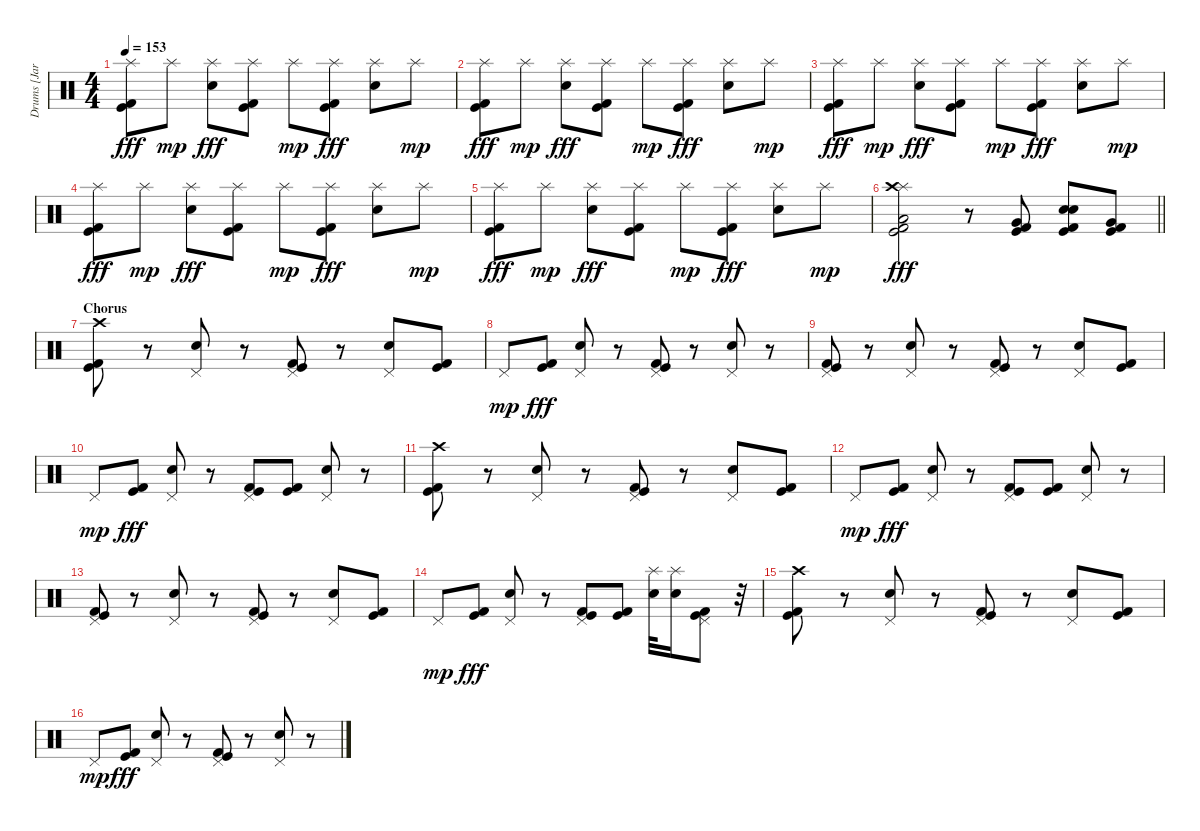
\track ("Drums [Jari]" "Drums [Jar") {instrument percussion}
\staff {score}
\articulation defaults
\ts (4 4)
\tempo 153
\clef neutral
\ks c
("Kick (hit) 2" "Splash (hit)" "Kick (hit)").8{dy fff} "Splash (hit)".8{dy mp} ("Splash (hit)" "Electric Snare (hit)").8{dy fff} ("Kick (hit) 2" "Splash (hit)" "Kick (hit)").8 "Splash (hit)".8{dy mp} ("Kick (hit) 2" "Splash (hit)" "Kick (hit)").8{dy fff} ("Splash (hit)" "Electric Snare (hit)").8 "Splash (hit)".8{dy mp} |
("Kick (hit) 2" "Splash (hit)" "Kick (hit)").8{dy fff} "Splash (hit)".8{dy mp} ("Splash (hit)" "Electric Snare (hit)").8{dy fff} ("Kick (hit) 2" "Splash (hit)" "Kick (hit)").8 "Splash (hit)".8{dy mp} ("Kick (hit) 2" "Splash (hit)" "Kick (hit)").8{dy fff} ("Splash (hit)" "Electric Snare (hit)").8 "Splash (hit)".8{dy mp} |
("Kick (hit) 2" "Splash (hit)" "Kick (hit)").8{dy fff} "Splash (hit)".8{dy mp} ("Splash (hit)" "Electric Snare (hit)").8{dy fff} ("Kick (hit) 2" "Splash (hit)" "Kick (hit)").8 "Splash (hit)".8{dy mp} ("Kick (hit) 2" "Splash (hit)" "Kick (hit)").8{dy fff} ("Splash (hit)" "Electric Snare (hit)").8 "Splash (hit)".8{dy mp} |
("Kick (hit) 2" "Splash (hit)" "Kick (hit)").8{dy fff} "Splash (hit)".8{dy mp} ("Splash (hit)" "Electric Snare (hit)").8{dy fff} ("Kick (hit) 2" "Splash (hit)" "Kick (hit)").8 "Splash (hit)".8{dy mp} ("Kick (hit) 2" "Splash (hit)" "Kick (hit)").8{dy fff} ("Splash (hit)" "Electric Snare (hit)").8 "Splash (hit)".8{dy mp} |
("Kick (hit) 2" "Splash (hit)" "Kick (hit)").8{dy fff} "Splash (hit)".8{dy mp} ("Splash (hit)" "Electric Snare (hit)").8{dy fff} ("Kick (hit) 2" "Splash (hit)" "Kick (hit)").8 "Splash (hit)".8{dy mp} ("Kick (hit) 2" "Splash (hit)" "Kick (hit)").8{dy fff} ("Splash (hit)" "Electric Snare (hit)").8 "Splash (hit)".8{dy mp} |
\barLineRight lightlight
("Kick (hit) 2" "Low Floor Tom (hit)" "Splash (hit)" "Crash high (hit)" "Kick (hit)").2{dy fff} r.8 ("Kick (hit) 2" "Very Low Tom (hit)" "Kick (hit)").8 ("Kick (hit) 2" "Snare (hit) 2" "Electric Snare (hit)" "Kick (hit)").8 ("Kick (hit) 2" "Very Low Tom (hit)" "Kick (hit)").8 |
\section ("" "Chorus")
("Kick (hit) 2" "Crash high (hit)" "Kick (hit)").8 r.8 ("Pedal Hi-Hat (hit)" "Electric Snare (hit)").8 r.8 ("Kick (hit) 2" "Pedal Hi-Hat (hit)" "Kick (hit)").8 r.8 ("Pedal Hi-Hat (hit)" "Electric Snare (hit)").8 ("Kick (hit) 2" "Kick (hit)").8 |
"Pedal Hi-Hat (hit)".8{dy mp} ("Kick (hit) 2" "Kick (hit)").8{dy fff} ("Pedal Hi-Hat (hit)" "Electric Snare (hit)").8 r.8 ("Kick (hit) 2" "Pedal Hi-Hat (hit)" "Kick (hit)").8 r.8 ("Pedal Hi-Hat (hit)" "Electric Snare (hit)").8 r.8 |
("Kick (hit) 2" "Pedal Hi-Hat (hit)" "Kick (hit)").8 r.8 ("Pedal Hi-Hat (hit)" "Electric Snare (hit)").8 r.8 ("Kick (hit) 2" "Pedal Hi-Hat (hit)" "Kick (hit)").8 r.8 ("Pedal Hi-Hat (hit)" "Electric Snare (hit)").8 ("Kick (hit) 2" "Kick (hit)").8 |
"Pedal Hi-Hat (hit)".8{dy mp} ("Kick (hit) 2" "Kick (hit)").8{dy fff} ("Pedal Hi-Hat (hit)" "Electric Snare (hit)").8 r.8 ("Kick (hit) 2" "Pedal Hi-Hat (hit)" "Kick (hit)").8 ("Kick (hit) 2" "Kick (hit)").8 ("Pedal Hi-Hat (hit)" "Electric Snare (hit)").8 r.8 |
("Kick (hit) 2" "Crash high (hit)" "Kick (hit)").8 r.8 ("Pedal Hi-Hat (hit)" "Electric Snare (hit)").8 r.8 ("Kick (hit) 2" "Pedal Hi-Hat (hit)" "Kick (hit)").8 r.8 ("Pedal Hi-Hat (hit)" "Electric Snare (hit)").8 ("Kick (hit) 2" "Kick (hit)").8 |
"Pedal Hi-Hat (hit)".8{dy mp} ("Kick (hit) 2" "Kick (hit)").8{dy fff} ("Pedal Hi-Hat (hit)" "Electric Snare (hit)").8 r.8 ("Kick (hit) 2" "Pedal Hi-Hat (hit)" "Kick (hit)").8 ("Kick (hit) 2" "Kick (hit)").8 ("Pedal Hi-Hat (hit)" "Electric Snare (hit)").8 r.8 |
("Kick (hit) 2" "Pedal Hi-Hat (hit)" "Kick (hit)").8 r.8 ("Pedal Hi-Hat (hit)" "Electric Snare (hit)").8 r.8 ("Kick (hit) 2" "Pedal Hi-Hat (hit)" "Kick (hit)").8 r.8 ("Pedal Hi-Hat (hit)" "Electric Snare (hit)").8 ("Kick (hit) 2" "Kick (hit)").8 |
"Pedal Hi-Hat (hit)".8{dy mp} ("Kick (hit) 2" "Kick (hit)").8{dy fff} ("Pedal Hi-Hat (hit)" "Electric Snare (hit)").8 r.8 ("Kick (hit) 2" "Pedal Hi-Hat (hit)" "Kick (hit)").8 ("Kick (hit) 2" "Kick (hit)").8 ("Splash (hit)" "Electric Snare (hit)").32 ("Splash (hit)" "Electric Snare (hit)").16 ("Kick (hit) 2" "Pedal Hi-Hat (hit)" "Kick (hit)").8 r.32 |
("Kick (hit) 2" "Crash high (hit)" "Kick (hit)").8 r.8 ("Pedal Hi-Hat (hit)" "Electric Snare (hit)").8 r.8 ("Kick (hit) 2" "Pedal Hi-Hat (hit)" "Kick (hit)").8 r.8 ("Pedal Hi-Hat (hit)" "Electric Snare (hit)").8 ("Kick (hit) 2" "Kick (hit)").8 |
"Pedal Hi-Hat (hit)".8{dy mp} ("Kick (hit) 2" "Kick (hit)").8{dy fff} ("Pedal Hi-Hat (hit)" "Electric Snare (hit)").8 r.8 ("Kick (hit) 2" "Pedal Hi-Hat (hit)" "Kick (hit)").8 r.8 ("Pedal Hi-Hat (hit)" "Electric Snare (hit)").8 r.8
